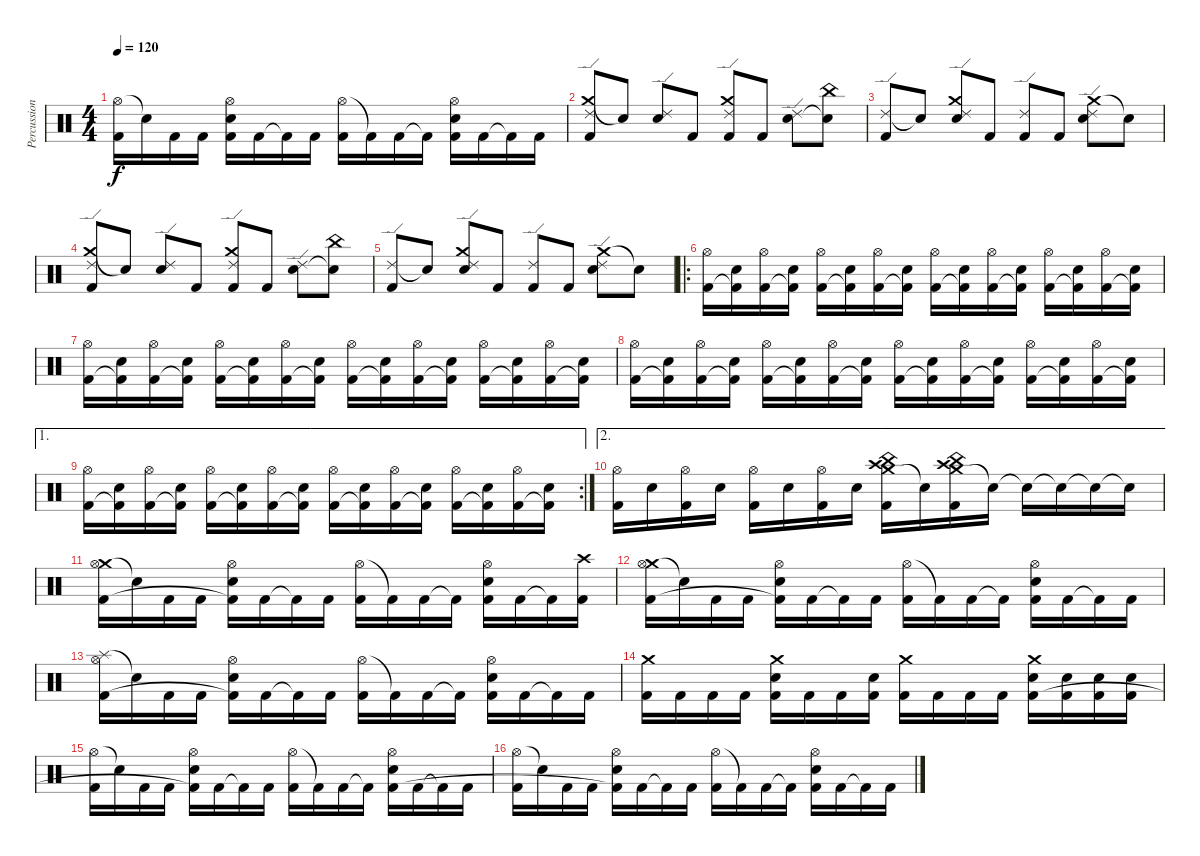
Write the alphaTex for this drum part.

\track ("Percussion" "Percussion") {instrument percussion}
\staff {score}
\articulation defaults
\ts (4 4)
\tempo 120
\clef neutral
\ks c
("Hi-Hat (open)" "Kick (hit) 2").16{dy f} "Snare (hit)"{t}.16 "Kick (hit) 2".16 "Kick (hit) 2".16 ("Hi-Hat (open)" "Electric Snare (hit)" "Kick (hit) 2"{t}).16 "Kick (hit) 2".16 "Kick (hit) 2"{t}.16 "Kick (hit) 2".16 ("Hi-Hat (open)" "Kick (hit) 2").16 "Kick (hit) 2"{t}.16 "Kick (hit) 2".16 "Kick (hit) 2"{t}.16 ("Hi-Hat (open)" "Electric Snare (hit)" "Kick (hit) 2").16 "Kick (hit) 2".16 "Kick (hit) 2"{t}.16 "Kick (hit) 2".16 |
("Crash medium (hit)" "Ride (edge) 2" "Kick (hit) 2").8 "Snare (hit)"{t}.8 ("Ride (edge) 2" "Electric Snare (hit)").8 "Kick (hit) 2".8 ("Crash medium (hit)" "Ride (edge) 2" "Kick (hit) 2").8 "Kick (hit) 2".8 ("Ride (edge) 2" "Electric Snare (hit)").8 ("China (hit)" "Snare (hit)"{t}).8 |
("Ride (edge) 2" "Kick (hit) 2").8 "Snare (hit)"{t}.8 ("Crash medium (hit)" "Ride (edge) 2" "Electric Snare (hit)").8 "Kick (hit) 2".8 ("Ride (edge) 2" "Kick (hit) 2").8 "Kick (hit) 2".8 ("Crash medium (hit)" "Ride (edge) 2" "Electric Snare (hit)").8 "Snare (hit)"{t}.8 |
("Crash medium (hit)" "Ride (edge) 2" "Kick (hit) 2").8 "Snare (hit)"{t}.8 ("Ride (edge) 2" "Electric Snare (hit)").8 "Kick (hit) 2".8 ("Crash medium (hit)" "Ride (edge) 2" "Kick (hit) 2").8 "Kick (hit) 2".8 ("Ride (edge) 2" "Electric Snare (hit)").8 ("China (hit)" "Snare (hit)"{t}).8 |
("Ride (edge) 2" "Kick (hit) 2").8 "Snare (hit)"{t}.8 ("Crash medium (hit)" "Ride (edge) 2" "Electric Snare (hit)").8 "Kick (hit) 2".8 ("Ride (edge) 2" "Kick (hit) 2").8 "Kick (hit) 2".8 ("Crash medium (hit)" "Ride (edge) 2" "Electric Snare (hit)").8 "Snare (hit)"{t}.8 |
\ro
("Hi-Hat (open)" "Kick (hit) 2").16 ("Electric Snare (hit)" "Kick (hit) 2"{t}).16 ("Hi-Hat (open)" "Kick (hit) 2").16 ("Electric Snare (hit)" "Kick (hit) 2"{t}).16 ("Hi-Hat (open)" "Kick (hit) 2").16 ("Electric Snare (hit)" "Kick (hit) 2"{t}).16 ("Hi-Hat (open)" "Kick (hit) 2").16 ("Electric Snare (hit)" "Kick (hit) 2"{t}).16 ("Hi-Hat (open)" "Kick (hit) 2").16 ("Electric Snare (hit)" "Kick (hit) 2"{t}).16 ("Hi-Hat (open)" "Kick (hit) 2").16 ("Electric Snare (hit)" "Kick (hit) 2"{t}).16 ("Hi-Hat (open)" "Kick (hit) 2").16 ("Electric Snare (hit)" "Kick (hit) 2"{t}).16 ("Hi-Hat (open)" "Kick (hit) 2").16 ("Electric Snare (hit)" "Kick (hit) 2"{t}).16 |
("Hi-Hat (open)" "Kick (hit) 2").16 ("Electric Snare (hit)" "Kick (hit) 2"{t}).16 ("Hi-Hat (open)" "Kick (hit) 2").16 ("Electric Snare (hit)" "Kick (hit) 2"{t}).16 ("Hi-Hat (open)" "Kick (hit) 2").16 ("Electric Snare (hit)" "Kick (hit) 2"{t}).16 ("Hi-Hat (open)" "Kick (hit) 2").16 ("Electric Snare (hit)" "Kick (hit) 2"{t}).16 ("Hi-Hat (open)" "Kick (hit) 2").16 ("Electric Snare (hit)" "Kick (hit) 2"{t}).16 ("Hi-Hat (open)" "Kick (hit) 2").16 ("Electric Snare (hit)" "Kick (hit) 2"{t}).16 ("Hi-Hat (open)" "Kick (hit) 2").16 ("Electric Snare (hit)" "Kick (hit) 2"{t}).16 ("Hi-Hat (open)" "Kick (hit) 2").16 ("Electric Snare (hit)" "Kick (hit) 2"{t}).16 |
("Hi-Hat (open)" "Kick (hit) 2").16 ("Electric Snare (hit)" "Kick (hit) 2"{t}).16 ("Hi-Hat (open)" "Kick (hit) 2").16 ("Electric Snare (hit)" "Kick (hit) 2"{t}).16 ("Hi-Hat (open)" "Kick (hit) 2").16 ("Electric Snare (hit)" "Kick (hit) 2"{t}).16 ("Hi-Hat (open)" "Kick (hit) 2").16 ("Electric Snare (hit)" "Kick (hit) 2"{t}).16 ("Hi-Hat (open)" "Kick (hit) 2").16 ("Electric Snare (hit)" "Kick (hit) 2"{t}).16 ("Hi-Hat (open)" "Kick (hit) 2").16 ("Electric Snare (hit)" "Kick (hit) 2"{t}).16 ("Hi-Hat (open)" "Kick (hit) 2").16 ("Electric Snare (hit)" "Kick (hit) 2"{t}).16 ("Hi-Hat (open)" "Kick (hit) 2").16 ("Electric Snare (hit)" "Kick (hit) 2"{t}).16 |
\ae 1
\rc 2
("Hi-Hat (open)" "Kick (hit) 2").16 ("Electric Snare (hit)" "Kick (hit) 2"{t}).16 ("Hi-Hat (open)" "Kick (hit) 2").16 ("Electric Snare (hit)" "Kick (hit) 2"{t}).16 ("Hi-Hat (open)" "Kick (hit) 2").16 ("Electric Snare (hit)" "Kick (hit) 2"{t}).16 ("Hi-Hat (open)" "Kick (hit) 2").16 ("Electric Snare (hit)" "Kick (hit) 2"{t}).16 ("Hi-Hat (open)" "Kick (hit) 2").16 ("Electric Snare (hit)" "Kick (hit) 2"{t}).16 ("Hi-Hat (open)" "Kick (hit) 2").16 ("Electric Snare (hit)" "Kick (hit) 2"{t}).16 ("Hi-Hat (open)" "Kick (hit) 2").16 ("Electric Snare (hit)" "Kick (hit) 2"{t}).16 ("Hi-Hat (open)" "Kick (hit) 2").16 ("Electric Snare (hit)" "Kick (hit) 2"{t}).16 |
\ae 2
("Hi-Hat (open)" "Kick (hit) 2").16 "Electric Snare (hit)".16 ("Hi-Hat (open)" "Kick (hit) 2").16 "Electric Snare (hit)".16 ("Hi-Hat (open)" "Kick (hit) 2").16 "Electric Snare (hit)".16 ("Hi-Hat (open)" "Kick (hit) 2").16 "Electric Snare (hit)".16 ("Crash medium (hit)" "Crash high (hit)" "China (hit)" "Kick (hit) 2").16 "Snare (hit)"{t}.16 ("Crash medium (hit)" "Crash high (hit)" "China (hit)" "Kick (hit) 2").16 "Snare (hit)"{t}.16 "Snare (hit)"{t}.16 "Snare (hit)"{t}.16 "Snare (hit)"{t}.16 "Snare (hit)"{t}.16 |
("Crash medium (hit)" "Hi-Hat (open)" "Kick (hit) 2").16 "Snare (hit)"{t}.16 "Kick (hit) 2".16 "Kick (hit) 2".16 ("Hi-Hat (open)" "Electric Snare (hit)" "Kick (hit) 2"{t}).16 "Kick (hit) 2".16 "Kick (hit) 2"{t}.16 "Kick (hit) 2".16 ("Hi-Hat (open)" "Kick (hit) 2").16 "Kick (hit) 2"{t}.16 "Kick (hit) 2".16 "Kick (hit) 2"{t}.16 ("Hi-Hat (open)" "Electric Snare (hit)" "Kick (hit) 2").16 "Kick (hit) 2".16 "Kick (hit) 2"{t}.16 ("Crash high (hit)" "Kick (hit) 2").16 |
("Crash medium (hit)" "Hi-Hat (open)" "Kick (hit) 2").16 "Snare (hit)"{t}.16 "Kick (hit) 2".16 "Kick (hit) 2".16 ("Hi-Hat (open)" "Electric Snare (hit)" "Kick (hit) 2"{t}).16 "Kick (hit) 2".16 "Kick (hit) 2"{t}.16 "Kick (hit) 2".16 ("Hi-Hat (open)" "Kick (hit) 2").16 "Kick (hit) 2"{t}.16 "Kick (hit) 2".16 "Kick (hit) 2"{t}.16 ("Hi-Hat (open)" "Electric Snare (hit)" "Kick (hit) 2").16 "Kick (hit) 2".16 "Kick (hit) 2"{t}.16 "Kick (hit) 2".16 |
("Splash (hit)" "Hi-Hat (open)" "Kick (hit) 2").16 "Snare (hit)"{t}.16 "Kick (hit) 2".16 "Kick (hit) 2".16 ("Hi-Hat (open)" "Electric Snare (hit)" "Kick (hit) 2"{t}).16 "Kick (hit) 2".16 "Kick (hit) 2"{t}.16 "Kick (hit) 2".16 ("Hi-Hat (open)" "Kick (hit) 2").16 "Kick (hit) 2"{t}.16 "Kick (hit) 2".16 "Kick (hit) 2"{t}.16 ("Hi-Hat (open)" "Electric Snare (hit)" "Kick (hit) 2").16 "Kick (hit) 2".16 "Kick (hit) 2"{t}.16 "Kick (hit) 2".16 |
("Crash medium (hit)" "Kick (hit) 2").16 "Kick (hit) 2".16 "Kick (hit) 2".16 "Kick (hit) 2".16 ("Crash medium (hit)" "Electric Snare (hit)" "Kick (hit) 2").16 "Kick (hit) 2".16 "Kick (hit) 2".16 ("Electric Snare (hit)" "Kick (hit) 2").16 ("Crash medium (hit)" "Kick (hit) 2").16 "Kick (hit) 2".16 "Kick (hit) 2".16 "Kick (hit) 2".16 ("Crash medium (hit)" "Electric Snare (hit)" "Kick (hit) 2").16 ("Electric Snare (hit)" "Kick (hit) 2").16 ("Electric Snare (hit)" "Kick (hit) 2").16 ("Electric Snare (hit)" "Kick (hit) 2").16 |
("Hi-Hat (open)" "Kick (hit) 2").16 "Snare (hit)"{t}.16 "Kick (hit) 2".16 "Kick (hit) 2".16 ("Hi-Hat (open)" "Electric Snare (hit)" "Kick (hit) 2"{t}).16 "Kick (hit) 2".16 "Kick (hit) 2"{t}.16 "Kick (hit) 2".16 ("Hi-Hat (open)" "Kick (hit) 2").16 "Kick (hit) 2"{t}.16 "Kick (hit) 2".16 "Kick (hit) 2"{t}.16 ("Hi-Hat (open)" "Electric Snare (hit)" "Kick (hit) 2").16 "Kick (hit) 2".16 "Kick (hit) 2"{t}.16 "Kick (hit) 2".16 |
("Hi-Hat (open)" "Kick (hit) 2").16 "Snare (hit)"{t}.16 "Kick (hit) 2".16 "Kick (hit) 2".16 ("Hi-Hat (open)" "Electric Snare (hit)" "Kick (hit) 2"{t}).16 "Kick (hit) 2".16 "Kick (hit) 2"{t}.16 "Kick (hit) 2".16 ("Hi-Hat (open)" "Kick (hit) 2").16 "Kick (hit) 2"{t}.16 "Kick (hit) 2".16 "Kick (hit) 2"{t}.16 ("Hi-Hat (open)" "Electric Snare (hit)" "Kick (hit) 2").16 "Kick (hit) 2".16 "Kick (hit) 2"{t}.16 "Kick (hit) 2".16
